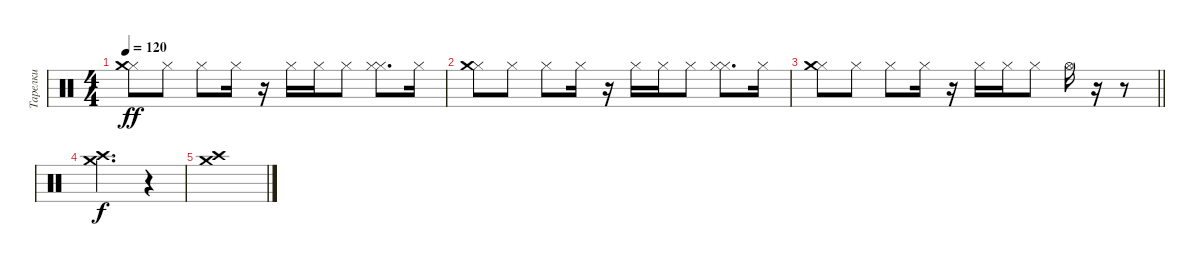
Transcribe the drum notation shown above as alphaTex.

\track ("Тарелки" "Тарелки") {instrument percussion}
\staff {score}
\articulation defaults
\ts (4 4)
\tempo 120
\clef neutral
\ks c
("Hi-Hat (closed)" "Crash medium (hit)").8{dy ff} "Hi-Hat (closed)".8 "Hi-Hat (closed)".8 "Hi-Hat (closed)".16 r.16 "Hi-Hat (closed)".16 "Hi-Hat (closed)".16 "Hi-Hat (closed)".8 ("Hi-Hat (closed)" "Hi-Hat (closed)").8{d} "Hi-Hat (closed)".16 |
("Hi-Hat (closed)" "Crash medium (hit)").8 "Hi-Hat (closed)".8 "Hi-Hat (closed)".8 "Hi-Hat (closed)".16 r.16 "Hi-Hat (closed)".16 "Hi-Hat (closed)".16 "Hi-Hat (closed)".8 ("Hi-Hat (closed)" "Hi-Hat (closed)").8{d} "Hi-Hat (closed)".16 |
\barLineRight lightlight
("Hi-Hat (closed)" "Crash medium (hit)").8 "Hi-Hat (closed)".8 "Hi-Hat (closed)".8 "Hi-Hat (closed)".16 r.16 "Hi-Hat (closed)".16 "Hi-Hat (closed)".16 "Hi-Hat (closed)".8 "Hi-Hat (open)".16 r.16 r.8 |
("Crash medium (hit)" "Crash high (hit)").2{d dy f} r.4 |
("Crash medium (hit)" "Crash high (hit)").1
